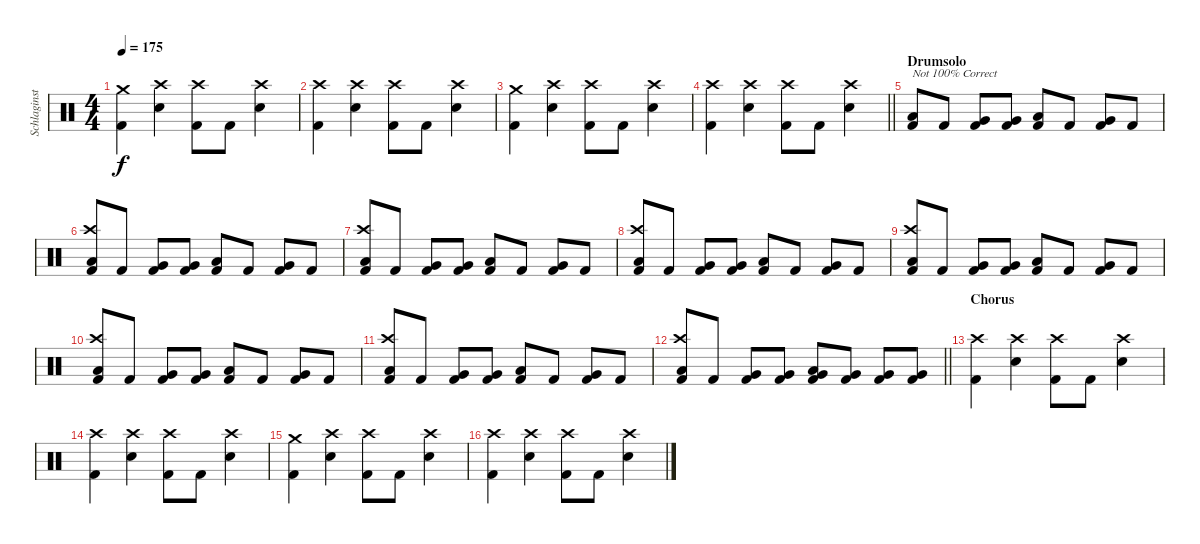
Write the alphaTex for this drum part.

\track ("Schlaginstrumente - Auswahl" "Schlaginst") {instrument percussion}
\staff {score}
\articulation defaults
\ts (4 4)
\tempo 175
\clef neutral
\ks c
("Crash medium (hit)" "Kick (hit) 2").4{dy f} ("Crash high (hit)" "Snare (hit) 2").4 ("Crash high (hit)" "Kick (hit) 2").8 "Kick (hit) 2".8 ("Crash high (hit)" "Snare (hit) 2").4 |
("Crash high (hit)" "Kick (hit) 2").4 ("Crash high (hit)" "Snare (hit) 2").4 ("Crash high (hit)" "Kick (hit) 2").8 "Kick (hit) 2".8 ("Crash high (hit)" "Snare (hit) 2").4 |
("Crash medium (hit)" "Kick (hit) 2").4 ("Crash high (hit)" "Snare (hit) 2").4 ("Crash high (hit)" "Kick (hit) 2").8 "Kick (hit) 2".8 ("Crash high (hit)" "Snare (hit) 2").4 |
\barLineRight lightlight
("Crash high (hit)" "Kick (hit) 2").4 ("Crash high (hit)" "Snare (hit) 2").4 ("Crash high (hit)" "Kick (hit) 2").8 "Kick (hit) 2".8 ("Crash high (hit)" "Snare (hit) 2").4 |
\section ("" "Drumsolo")
("Low Floor Tom (hit)" "Kick (hit) 2").8{txt "Not 100% Correct"} "Kick (hit) 2".8 ("Very Low Tom (hit)" "Kick (hit) 2").8 ("Very Low Tom (hit)" "Kick (hit) 2").8 ("Low Floor Tom (hit)" "Kick (hit) 2").8 "Kick (hit) 2".8 ("Very Low Tom (hit)" "Kick (hit) 2").8 "Kick (hit) 2".8 |
("Crash high (hit)" "Low Floor Tom (hit)" "Kick (hit) 2").8 "Kick (hit) 2".8 ("Very Low Tom (hit)" "Kick (hit) 2").8 ("Very Low Tom (hit)" "Kick (hit) 2").8 ("Low Floor Tom (hit)" "Kick (hit) 2").8 "Kick (hit) 2".8 ("Very Low Tom (hit)" "Kick (hit) 2").8 "Kick (hit) 2".8 |
("Crash high (hit)" "Low Floor Tom (hit)" "Kick (hit) 2").8 "Kick (hit) 2".8 ("Very Low Tom (hit)" "Kick (hit) 2").8 ("Very Low Tom (hit)" "Kick (hit) 2").8 ("Low Floor Tom (hit)" "Kick (hit) 2").8 "Kick (hit) 2".8 ("Very Low Tom (hit)" "Kick (hit) 2").8 "Kick (hit) 2".8 |
("Crash high (hit)" "Low Floor Tom (hit)" "Kick (hit) 2").8 "Kick (hit) 2".8 ("Very Low Tom (hit)" "Kick (hit) 2").8 ("Very Low Tom (hit)" "Kick (hit) 2").8 ("Low Floor Tom (hit)" "Kick (hit) 2").8 "Kick (hit) 2".8 ("Very Low Tom (hit)" "Kick (hit) 2").8 "Kick (hit) 2".8 |
("Crash high (hit)" "Low Floor Tom (hit)" "Kick (hit) 2").8 "Kick (hit) 2".8 ("Very Low Tom (hit)" "Kick (hit) 2").8 ("Very Low Tom (hit)" "Kick (hit) 2").8 ("Low Floor Tom (hit)" "Kick (hit) 2").8 "Kick (hit) 2".8 ("Very Low Tom (hit)" "Kick (hit) 2").8 "Kick (hit) 2".8 |
("Crash high (hit)" "Low Floor Tom (hit)" "Kick (hit) 2").8 "Kick (hit) 2".8 ("Very Low Tom (hit)" "Kick (hit) 2").8 ("Very Low Tom (hit)" "Kick (hit) 2").8 ("Low Floor Tom (hit)" "Kick (hit) 2").8 "Kick (hit) 2".8 ("Very Low Tom (hit)" "Kick (hit) 2").8 "Kick (hit) 2".8 |
("Crash high (hit)" "Low Floor Tom (hit)" "Kick (hit) 2").8 "Kick (hit) 2".8 ("Very Low Tom (hit)" "Kick (hit) 2").8 ("Very Low Tom (hit)" "Kick (hit) 2").8 ("Low Floor Tom (hit)" "Kick (hit) 2").8 "Kick (hit) 2".8 ("Very Low Tom (hit)" "Kick (hit) 2").8 "Kick (hit) 2".8 |
\barLineRight lightlight
("Crash high (hit)" "Low Floor Tom (hit)" "Kick (hit) 2").8 "Kick (hit) 2".8 ("Very Low Tom (hit)" "Kick (hit) 2").8 ("Very Low Tom (hit)" "Kick (hit) 2").8 ("Very Low Tom (hit)" "Low Floor Tom (hit)" "Kick (hit) 2").8 ("Very Low Tom (hit)" "Kick (hit) 2").8 ("Very Low Tom (hit)" "Kick (hit) 2").8 ("Very Low Tom (hit)" "Kick (hit) 2").8 |
\section ("" "Chorus")
("Crash high (hit)" "Kick (hit) 2").4 ("Crash high (hit)" "Snare (hit) 2").4 ("Crash high (hit)" "Kick (hit) 2").8 "Kick (hit) 2".8 ("Crash high (hit)" "Snare (hit) 2").4 |
("Crash high (hit)" "Kick (hit) 2").4 ("Crash high (hit)" "Snare (hit) 2").4 ("Crash high (hit)" "Kick (hit) 2").8 "Kick (hit) 2".8 ("Crash high (hit)" "Snare (hit) 2").4 |
("Crash medium (hit)" "Kick (hit) 2").4 ("Crash high (hit)" "Snare (hit) 2").4 ("Crash high (hit)" "Kick (hit) 2").8 "Kick (hit) 2".8 ("Crash high (hit)" "Snare (hit) 2").4 |
("Crash high (hit)" "Kick (hit) 2").4 ("Crash high (hit)" "Snare (hit) 2").4 ("Crash high (hit)" "Kick (hit) 2").8 "Kick (hit) 2".8 ("Crash high (hit)" "Snare (hit) 2").4
